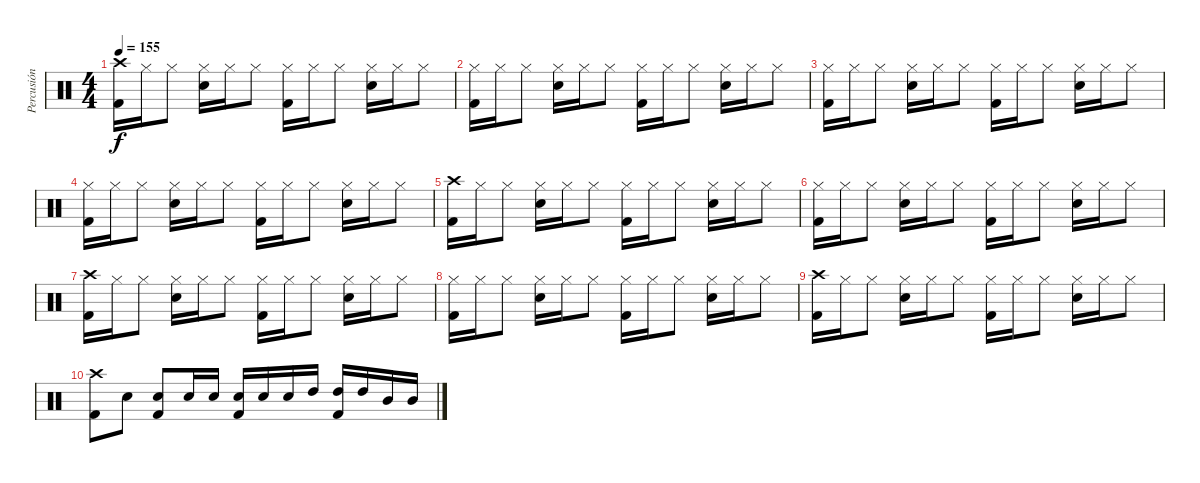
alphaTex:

\track ("Percusión" "Percusión") {instrument percussion}
\staff {score}
\articulation defaults
\ts (4 4)
\tempo 155
\clef neutral
\ks c
("Crash high (hit)" "Kick (hit) 2").16{dy f} "Hi-Hat (closed)".16 "Hi-Hat (closed)".8 ("Hi-Hat (closed)" "Electric Snare (hit)").16 "Hi-Hat (closed)".16 "Hi-Hat (closed)".8 ("Hi-Hat (closed)" "Kick (hit) 2").16 "Hi-Hat (closed)".16 "Hi-Hat (closed)".8 ("Hi-Hat (closed)" "Electric Snare (hit)").16 "Hi-Hat (closed)".16 "Hi-Hat (closed)".8 |
("Hi-Hat (closed)" "Kick (hit) 2").16 "Hi-Hat (closed)".16 "Hi-Hat (closed)".8 ("Hi-Hat (closed)" "Electric Snare (hit)").16 "Hi-Hat (closed)".16 "Hi-Hat (closed)".8 ("Hi-Hat (closed)" "Kick (hit) 2").16 "Hi-Hat (closed)".16 "Hi-Hat (closed)".8 ("Hi-Hat (closed)" "Electric Snare (hit)").16 "Hi-Hat (closed)".16 "Hi-Hat (closed)".8 |
("Hi-Hat (closed)" "Kick (hit) 2").16 "Hi-Hat (closed)".16 "Hi-Hat (closed)".8 ("Hi-Hat (closed)" "Electric Snare (hit)").16 "Hi-Hat (closed)".16 "Hi-Hat (closed)".8 ("Hi-Hat (closed)" "Kick (hit) 2").16 "Hi-Hat (closed)".16 "Hi-Hat (closed)".8 ("Hi-Hat (closed)" "Electric Snare (hit)").16 "Hi-Hat (closed)".16 "Hi-Hat (closed)".8 |
("Hi-Hat (closed)" "Kick (hit) 2").16 "Hi-Hat (closed)".16 "Hi-Hat (closed)".8 ("Hi-Hat (closed)" "Electric Snare (hit)").16 "Hi-Hat (closed)".16 "Hi-Hat (closed)".8 ("Hi-Hat (closed)" "Kick (hit) 2").16 "Hi-Hat (closed)".16 "Hi-Hat (closed)".8 ("Hi-Hat (closed)" "Electric Snare (hit)").16 "Hi-Hat (closed)".16 "Hi-Hat (closed)".8 |
("Crash high (hit)" "Kick (hit) 2").16 "Hi-Hat (closed)".16 "Hi-Hat (closed)".8 ("Hi-Hat (closed)" "Electric Snare (hit)").16 "Hi-Hat (closed)".16 "Hi-Hat (closed)".8 ("Hi-Hat (closed)" "Kick (hit) 2").16 "Hi-Hat (closed)".16 "Hi-Hat (closed)".8 ("Hi-Hat (closed)" "Electric Snare (hit)").16 "Hi-Hat (closed)".16 "Hi-Hat (closed)".8 |
("Hi-Hat (closed)" "Kick (hit) 2").16 "Hi-Hat (closed)".16 "Hi-Hat (closed)".8 ("Hi-Hat (closed)" "Electric Snare (hit)").16 "Hi-Hat (closed)".16 "Hi-Hat (closed)".8 ("Hi-Hat (closed)" "Kick (hit) 2").16 "Hi-Hat (closed)".16 "Hi-Hat (closed)".8 ("Hi-Hat (closed)" "Electric Snare (hit)").16 "Hi-Hat (closed)".16 "Hi-Hat (closed)".8 |
("Crash high (hit)" "Kick (hit) 2").16 "Hi-Hat (closed)".16 "Hi-Hat (closed)".8 ("Hi-Hat (closed)" "Electric Snare (hit)").16 "Hi-Hat (closed)".16 "Hi-Hat (closed)".8 ("Hi-Hat (closed)" "Kick (hit) 2").16 "Hi-Hat (closed)".16 "Hi-Hat (closed)".8 ("Hi-Hat (closed)" "Electric Snare (hit)").16 "Hi-Hat (closed)".16 "Hi-Hat (closed)".8 |
("Hi-Hat (closed)" "Kick (hit) 2").16 "Hi-Hat (closed)".16 "Hi-Hat (closed)".8 ("Hi-Hat (closed)" "Electric Snare (hit)").16 "Hi-Hat (closed)".16 "Hi-Hat (closed)".8 ("Hi-Hat (closed)" "Kick (hit) 2").16 "Hi-Hat (closed)".16 "Hi-Hat (closed)".8 ("Hi-Hat (closed)" "Electric Snare (hit)").16 "Hi-Hat (closed)".16 "Hi-Hat (closed)".8 |
("Crash high (hit)" "Kick (hit) 2").16 "Hi-Hat (closed)".16 "Hi-Hat (closed)".8 ("Hi-Hat (closed)" "Electric Snare (hit)").16 "Hi-Hat (closed)".16 "Hi-Hat (closed)".8 ("Hi-Hat (closed)" "Kick (hit) 2").16 "Hi-Hat (closed)".16 "Hi-Hat (closed)".8 ("Hi-Hat (closed)" "Electric Snare (hit)").16 "Hi-Hat (closed)".16 "Hi-Hat (closed)".8 |
("Crash high (hit)" "Kick (hit) 2").8 "Electric Snare (hit)".8 ("Electric Snare (hit)" "Kick (hit) 2").8 "Electric Snare (hit)".16 "Electric Snare (hit)".16 ("Electric Snare (hit)" "Kick (hit) 2").16 "Electric Snare (hit)".16 "Electric Snare (hit)".16 "High Tom (hit)".16 ("High Tom (hit)" "Kick (hit) 2").16 "High Tom (hit)".16 "Mid Tom (hit)".16 "Mid Tom (hit)".16
